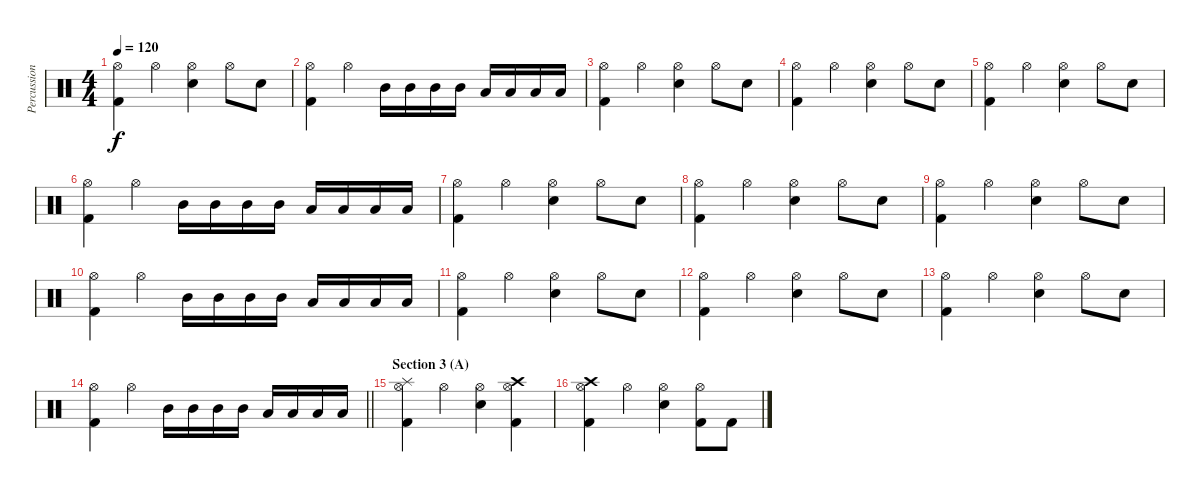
\track ("Percussion" "Percussion") {instrument percussion}
\staff {score}
\articulation defaults
\ts (4 4)
\tempo 120
\clef neutral
\ks c
("Hi-Hat (open)" "Kick (hit) 2").4{dy f} "Hi-Hat (open)".4 ("Hi-Hat (open)" "Snare (hit) 2").4 "Hi-Hat (open)".8 "Snare (hit) 2".8 |
("Hi-Hat (open)" "Kick (hit) 2").4 "Hi-Hat (open)".4 "Mid Tom (hit)".16 "Mid Tom (hit)".16 "Mid Tom (hit)".16 "Mid Tom (hit)".16 "Low Tom (hit)".16 "Low Tom (hit)".16 "Low Tom (hit)".16 "Low Tom (hit)".16 |
("Hi-Hat (open)" "Kick (hit) 2").4 "Hi-Hat (open)".4 ("Hi-Hat (open)" "Snare (hit) 2").4 "Hi-Hat (open)".8 "Snare (hit) 2".8 |
("Hi-Hat (open)" "Kick (hit) 2").4 "Hi-Hat (open)".4 ("Hi-Hat (open)" "Snare (hit) 2").4 "Hi-Hat (open)".8 "Snare (hit) 2".8 |
("Hi-Hat (open)" "Kick (hit) 2").4 "Hi-Hat (open)".4 ("Hi-Hat (open)" "Snare (hit) 2").4 "Hi-Hat (open)".8 "Snare (hit) 2".8 |
("Hi-Hat (open)" "Kick (hit) 2").4 "Hi-Hat (open)".4 "Mid Tom (hit)".16 "Mid Tom (hit)".16 "Mid Tom (hit)".16 "Mid Tom (hit)".16 "Low Tom (hit)".16 "Low Tom (hit)".16 "Low Tom (hit)".16 "Low Tom (hit)".16 |
("Hi-Hat (open)" "Kick (hit) 2").4 "Hi-Hat (open)".4 ("Hi-Hat (open)" "Snare (hit) 2").4 "Hi-Hat (open)".8 "Snare (hit) 2".8 |
("Hi-Hat (open)" "Kick (hit) 2").4 "Hi-Hat (open)".4 ("Hi-Hat (open)" "Snare (hit) 2").4 "Hi-Hat (open)".8 "Snare (hit) 2".8 |
("Hi-Hat (open)" "Kick (hit) 2").4 "Hi-Hat (open)".4 ("Hi-Hat (open)" "Snare (hit) 2").4 "Hi-Hat (open)".8 "Snare (hit) 2".8 |
("Hi-Hat (open)" "Kick (hit) 2").4 "Hi-Hat (open)".4 "Mid Tom (hit)".16 "Mid Tom (hit)".16 "Mid Tom (hit)".16 "Mid Tom (hit)".16 "Low Tom (hit)".16 "Low Tom (hit)".16 "Low Tom (hit)".16 "Low Tom (hit)".16 |
("Hi-Hat (open)" "Kick (hit) 2").4 "Hi-Hat (open)".4 ("Hi-Hat (open)" "Snare (hit) 2").4 "Hi-Hat (open)".8 "Snare (hit) 2".8 |
("Hi-Hat (open)" "Kick (hit) 2").4 "Hi-Hat (open)".4 ("Hi-Hat (open)" "Snare (hit) 2").4 "Hi-Hat (open)".8 "Snare (hit) 2".8 |
("Hi-Hat (open)" "Kick (hit) 2").4 "Hi-Hat (open)".4 ("Hi-Hat (open)" "Snare (hit) 2").4 "Hi-Hat (open)".8 "Snare (hit) 2".8 |
\barLineRight lightlight
("Hi-Hat (open)" "Kick (hit) 2").4 "Hi-Hat (open)".4 "Mid Tom (hit)".16 "Mid Tom (hit)".16 "Mid Tom (hit)".16 "Mid Tom (hit)".16 "Low Tom (hit)".16 "Low Tom (hit)".16 "Low Tom (hit)".16 "Low Tom (hit)".16 |
\section ("" "Section 3 (A)")
("Splash (hit)" "Hi-Hat (open)" "Kick (hit) 2").4 "Hi-Hat (open)".4 ("Hi-Hat (open)" "Snare (hit) 2").4 ("Hi-Hat (open)" "Crash high (hit)" "Kick (hit) 2").4 |
("Hi-Hat (open)" "Crash high (hit)" "Kick (hit) 2").4 "Hi-Hat (open)".4 ("Hi-Hat (open)" "Snare (hit) 2").4 ("Hi-Hat (open)" "Kick (hit) 2").8 "Kick (hit) 2".8
